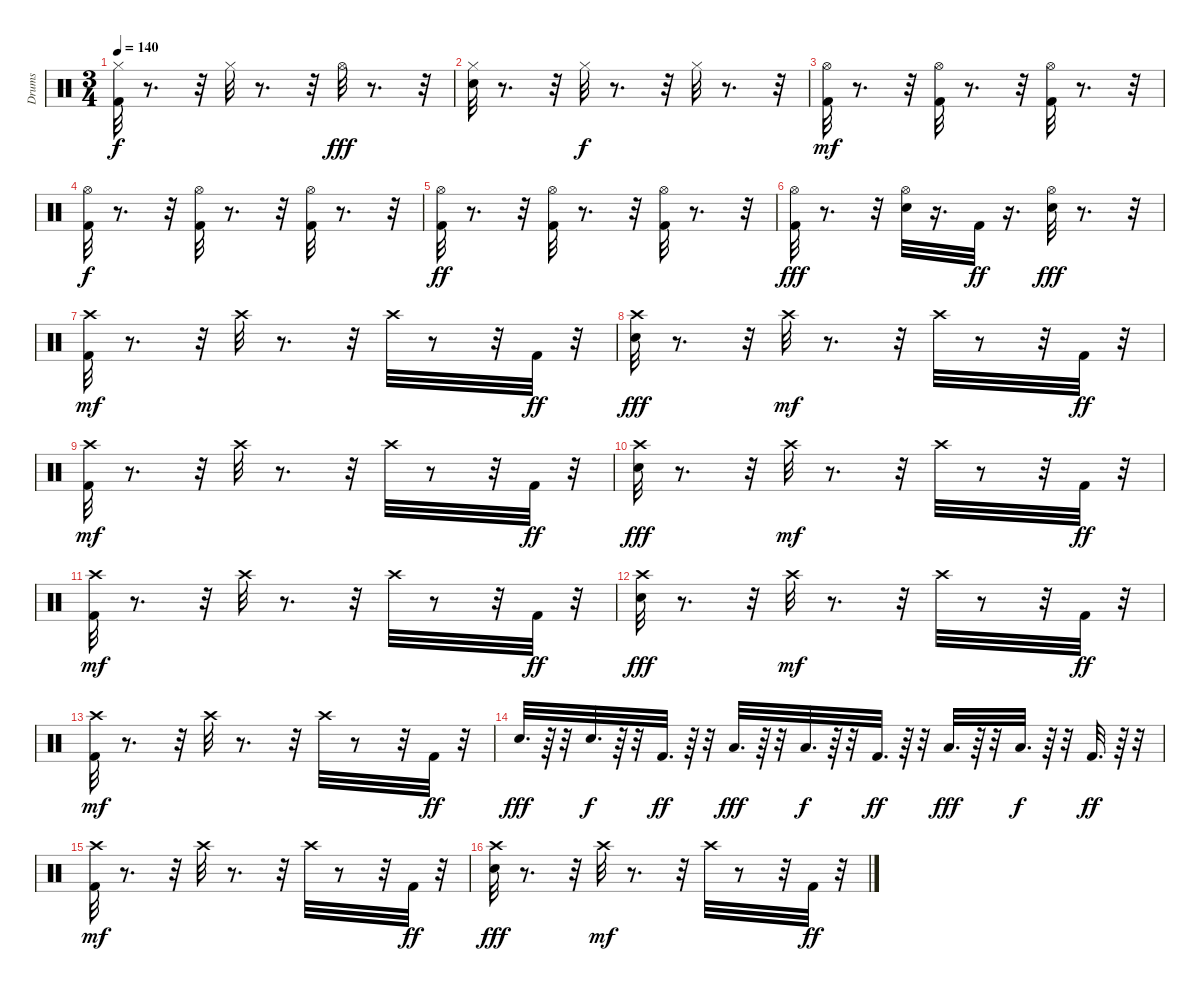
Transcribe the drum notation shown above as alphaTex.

\track ("Drums" "Drums") {instrument percussion}
\staff {score}
\articulation defaults
\ts (3 4)
\tempo 140
\clef neutral
\ks c
("Hi-Hat (closed)" "Kick (hit) 2").32{dy f} r.8{d} r.32 "Hi-Hat (closed)".32 r.8{d} r.32 "Hi-Hat (open)".32{dy fff} r.8{d} r.32 |
("Snare (hit) 2" "Hi-Hat (closed)").32 r.8{d} r.32 "Hi-Hat (closed)".32{dy f} r.8{d} r.32 "Hi-Hat (closed)".32 r.8{d} r.32 |
("Hi-Hat (open)" "Kick (hit) 2").32{dy mf} r.8{d} r.32 ("Kick (hit) 2" "Hi-Hat (open)").32 r.8{d} r.32 ("Kick (hit) 2" "Hi-Hat (open)").32 r.8{d} r.32 |
("Kick (hit) 2" "Hi-Hat (open)").32{dy f} r.8{d} r.32 ("Kick (hit) 2" "Hi-Hat (open)").32 r.8{d} r.32 ("Kick (hit) 2" "Hi-Hat (open)").32 r.8{d} r.32 |
("Kick (hit) 2" "Hi-Hat (open)").32{dy ff} r.8{d} r.32 ("Kick (hit) 2" "Hi-Hat (open)").32 r.8{d} r.32 ("Kick (hit) 2" "Hi-Hat (open)").32 r.8{d} r.32 |
("Hi-Hat (open)" "Kick (hit) 2").32{dy fff} r.8{d} r.32 ("Hi-Hat (open)" "Snare (hit) 2").32 r.16{d} "Kick (hit) 2".32{dy ff} r.16{d} ("Hi-Hat (open)" "Snare (hit) 2").32{dy fff} r.8{d} r.32 |
("Kick (hit) 2" "Crash high (hit)").32{dy mf} r.8{d} r.32 "Crash high (hit)".32 r.8{d} r.32 "Crash high (hit)".32 r.8 r.32 "Kick (hit) 2".32{dy ff} r.32 |
("Snare (hit) 2" "Crash high (hit)").32{dy fff} r.8{d} r.32 "Crash high (hit)".32{dy mf} r.8{d} r.32 "Crash high (hit)".32 r.8 r.32 "Kick (hit) 2".32{dy ff} r.32 |
("Kick (hit) 2" "Crash high (hit)").32{dy mf} r.8{d} r.32 "Crash high (hit)".32 r.8{d} r.32 "Crash high (hit)".32 r.8 r.32 "Kick (hit) 2".32{dy ff} r.32 |
("Snare (hit) 2" "Crash high (hit)").32{dy fff} r.8{d} r.32 "Crash high (hit)".32{dy mf} r.8{d} r.32 "Crash high (hit)".32 r.8 r.32 "Kick (hit) 2".32{dy ff} r.32 |
("Kick (hit) 2" "Crash high (hit)").32{dy mf} r.8{d} r.32 "Crash high (hit)".32 r.8{d} r.32 "Crash high (hit)".32 r.8 r.32 "Kick (hit) 2".32{dy ff} r.32 |
("Snare (hit) 2" "Crash high (hit)").32{dy fff} r.8{d} r.32 "Crash high (hit)".32{dy mf} r.8{d} r.32 "Crash high (hit)".32 r.8 r.32 "Kick (hit) 2".32{dy ff} r.32 |
("Kick (hit) 2" "Crash high (hit)").32{dy mf} r.8{d} r.32 "Crash high (hit)".32 r.8{d} r.32 "Crash high (hit)".32 r.8 r.32 "Kick (hit) 2".32{dy ff} r.32 |
"Snare (hit) 2".32{d dy fff} r.64 r.32 "Snare (hit) 2".32{d dy f} r.64 r.32 "Kick (hit) 2".32{d dy ff} r.64 r.32 "Low Tom (hit)".32{d dy fff} r.64 r.32 "Low Tom (hit)".32{d dy f} r.64 r.32 "Kick (hit) 2".32{d dy ff} r.64 r.32 "Low Floor Tom (hit)".32{d dy fff} r.64 r.32 "Low Floor Tom (hit)".32{d dy f} r.64 r.32 "Kick (hit) 2".32{d dy ff} r.64 r.32 |
("Kick (hit) 2" "Crash high (hit)").32{dy mf} r.8{d} r.32 "Crash high (hit)".32 r.8{d} r.32 "Crash high (hit)".32 r.8 r.32 "Kick (hit) 2".32{dy ff} r.32 |
("Snare (hit) 2" "Crash high (hit)").32{dy fff} r.8{d} r.32 "Crash high (hit)".32{dy mf} r.8{d} r.32 "Crash high (hit)".32 r.8 r.32 "Kick (hit) 2".32{dy ff} r.32
